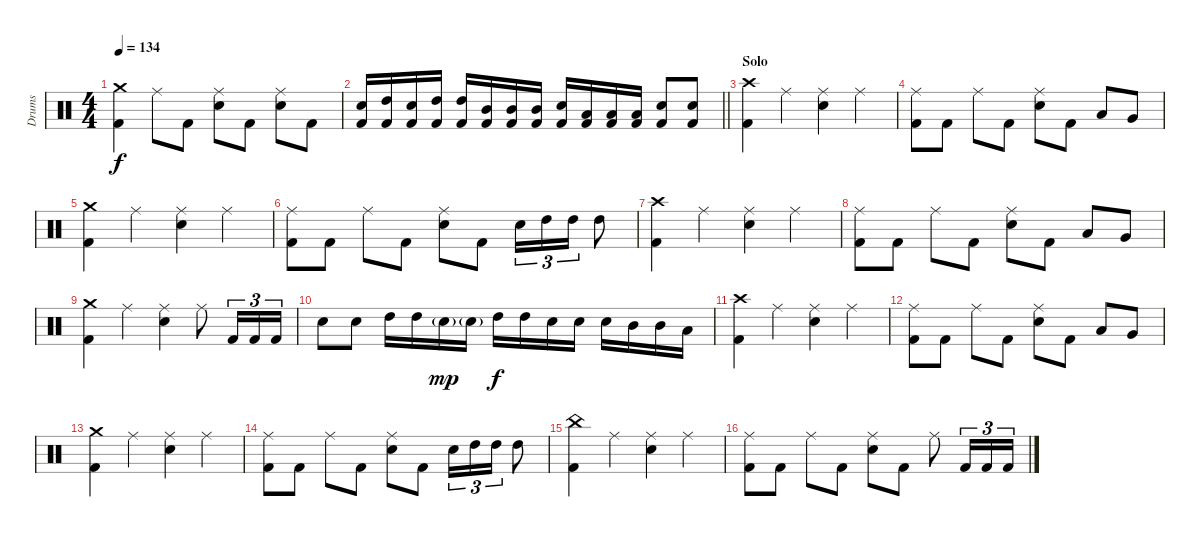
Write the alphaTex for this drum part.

\track ("Drums" "Drums") {instrument percussion}
\staff {score}
\articulation defaults
\ts (4 4)
\tempo 134
\clef neutral
\ks c
("Crash medium (hit)" "Kick (hit) 2").4{dy f} "Ride (middle)".8 "Kick (hit) 2".8 ("Ride (middle)" "Electric Snare (hit)").8 "Kick (hit) 2".8 ("Ride (middle)" "Electric Snare (hit)").8 "Kick (hit) 2".8 |
\barLineRight lightlight
("Electric Snare (hit)" "Kick (hit) 2").16 ("High Tom (hit)" "Kick (hit) 2").16 ("Electric Snare (hit)" "Kick (hit) 2").16 ("High Tom (hit)" "Kick (hit) 2").16 ("High Tom (hit)" "Kick (hit) 2").16 ("Mid Tom (hit)" "Kick (hit) 2").16 ("Mid Tom (hit)" "Kick (hit) 2").16 ("Mid Tom (hit)" "Kick (hit) 2").16 ("Electric Snare (hit)" "Kick (hit) 2").16 ("Low Tom (hit)" "Kick (hit) 2").16 ("Low Tom (hit)" "Kick (hit) 2").16 ("Low Tom (hit)" "Kick (hit) 2").16 ("Electric Snare (hit)" "Kick (hit) 2").8 ("Electric Snare (hit)" "Kick (hit) 2").8 |
\section ("" "Solo")
("Crash high (hit)" "Kick (hit) 2").4 "Ride (middle)".4 ("Ride (middle)" "Electric Snare (hit)").4 "Ride (middle)".4 |
("Ride (middle)" "Kick (hit) 2").8 "Kick (hit) 2".8 "Ride (middle)".8 "Kick (hit) 2".8 ("Ride (middle)" "Electric Snare (hit)").8 "Kick (hit) 2".8 "Low Tom (hit)".8 "Very Low Tom (hit)".8 |
("Crash medium (hit)" "Kick (hit) 2").4 "Ride (middle)".4 ("Ride (middle)" "Electric Snare (hit)").4 "Ride (middle)".4 |
("Ride (middle)" "Kick (hit) 2").8 "Kick (hit) 2".8 "Ride (middle)".8 "Kick (hit) 2".8 ("Ride (middle)" "Electric Snare (hit)").8 "Kick (hit) 2".8 "Electric Snare (hit)".16{tu (3 2)} "High Tom (hit)".16{tu (3 2)} "High Tom (hit)".16{tu (3 2)} "High Tom (hit)".8 |
("Crash high (hit)" "Kick (hit) 2").4 "Ride (middle)".4 ("Ride (middle)" "Electric Snare (hit)").4 "Ride (middle)".4 |
("Ride (middle)" "Kick (hit) 2").8 "Kick (hit) 2".8 "Ride (middle)".8 "Kick (hit) 2".8 ("Ride (middle)" "Electric Snare (hit)").8 "Kick (hit) 2".8 "Low Tom (hit)".8 "Very Low Tom (hit)".8 |
("Crash medium (hit)" "Kick (hit) 2").4 "Ride (middle)".4 ("Ride (middle)" "Electric Snare (hit)").4 "Ride (middle)".8 "Kick (hit) 2".16{tu (3 2)} "Kick (hit) 2".16{tu (3 2)} "Kick (hit) 2".16{tu (3 2)} |
"Electric Snare (hit)".8 "Electric Snare (hit)".8 "High Tom (hit)".16 "High Tom (hit)".16 "Electric Snare (hit)"{g}.16{dy mp} "Electric Snare (hit)"{g}.16 "High Tom (hit)".16{dy f} "High Tom (hit)".16 "Electric Snare (hit)".16 "Electric Snare (hit)".16 "Electric Snare (hit)".16 "Mid Tom (hit)".16 "Mid Tom (hit)".16 "Low Tom (hit)".16 |
("Crash high (hit)" "Kick (hit) 2").4 "Ride (middle)".4 ("Ride (middle)" "Electric Snare (hit)").4 "Ride (middle)".4 |
("Ride (middle)" "Kick (hit) 2").8 "Kick (hit) 2".8 "Ride (middle)".8 "Kick (hit) 2".8 ("Ride (middle)" "Electric Snare (hit)").8 "Kick (hit) 2".8 "Low Tom (hit)".8 "Very Low Tom (hit)".8 |
("Crash medium (hit)" "Kick (hit) 2").4 "Ride (middle)".4 ("Ride (middle)" "Electric Snare (hit)").4 "Ride (middle)".4 |
("Ride (middle)" "Kick (hit) 2").8 "Kick (hit) 2".8 "Ride (middle)".8 "Kick (hit) 2".8 ("Ride (middle)" "Electric Snare (hit)").8 "Kick (hit) 2".8 "Electric Snare (hit)".16{tu (3 2)} "High Tom (hit)".16{tu (3 2)} "High Tom (hit)".16{tu (3 2)} "High Tom (hit)".8 |
("China (hit)" "Kick (hit) 2").4 "Ride (middle)".4 ("Ride (middle)" "Electric Snare (hit)").4 "Ride (middle)".4 |
("Ride (middle)" "Kick (hit) 2").8 "Kick (hit) 2".8 "Ride (middle)".8 "Kick (hit) 2".8 ("Ride (middle)" "Electric Snare (hit)").8 "Kick (hit) 2".8 "Ride (middle)".8 "Kick (hit) 2".16{tu (3 2)} "Kick (hit) 2".16{tu (3 2)} "Kick (hit) 2".16{tu (3 2)}
